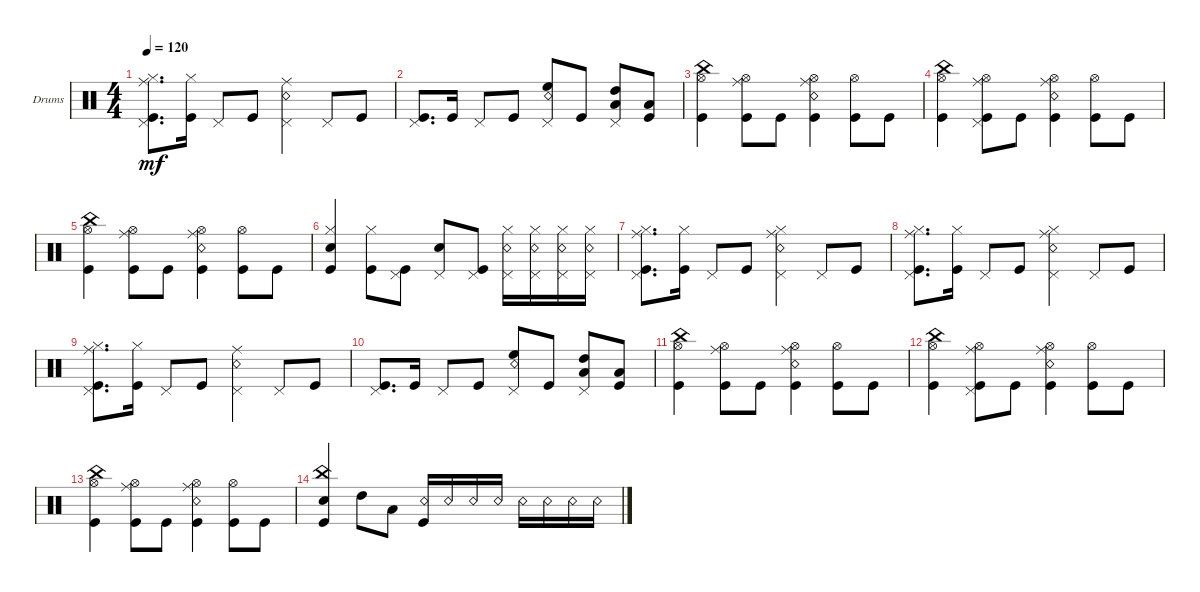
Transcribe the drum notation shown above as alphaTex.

\defaultSystemsLayout 4
\bracketExtendMode groupsimilarinstruments
\firstSystemTrackNameOrientation horizontal
\otherSystemsTrackNameOrientation horizontal
\track ("Drumkit" "Drums") {instrument percussion}
\staff {score}
\articulation defaults
\ts (4 4)
\tempo 120
\clef neutral
\ks c
("Kick (hit)" "Ride (middle)" "Hi-Hat (closed)" "Pedal Hi-Hat (hit)").8{d dy mf} ("Kick (hit)" "Hi-Hat (closed)").16 "Pedal Hi-Hat (hit)".8 "Kick (hit)".8 ("Snare (rim shot)" "Ride (middle)" "Pedal Hi-Hat (hit)").4 "Pedal Hi-Hat (hit)".8 "Kick (hit)".8 |
("Kick (hit)" "Pedal Hi-Hat (hit)").8{d} "Kick (hit)".16 "Pedal Hi-Hat (hit)".8 "Kick (hit)".8 ("Snare (rim shot)" "Pedal Hi-Hat (hit)" "High Floor Tom (hit)").8 "Kick (hit)".8 ("High Tom (hit)" "Pedal Hi-Hat (hit)" "Low Tom (hit)").8 ("Kick (hit)" "Low Tom (hit)").8 |
("Kick (hit)" "Hi-Hat (open)" "China (hit)").4 ("Kick (hit)" "Hi-Hat (open)" "Ride (middle)").8 "Kick (hit)".8 ("Kick (hit)" "Snare (rim shot)" "Hi-Hat (open)" "Ride (middle)").4 ("Kick (hit)" "Hi-Hat (open)").8 "Kick (hit)".8 |
("Kick (hit)" "Hi-Hat (open)" "China (hit)").4 ("Kick (hit)" "Hi-Hat (open)" "Pedal Hi-Hat (hit)" "Ride (middle)").8 "Kick (hit)".8 ("Kick (hit)" "Snare (rim shot)" "Hi-Hat (open)" "Ride (middle)").4 ("Kick (hit)" "Hi-Hat (open)").8 "Kick (hit)".8 |
("Kick (hit)" "Hi-Hat (open)" "China (hit)").4 ("Kick (hit)" "Hi-Hat (open)" "Ride (middle)").8 "Kick (hit)".8 ("Kick (hit)" "Snare (rim shot)" "Hi-Hat (open)" "Ride (middle)").4 ("Kick (hit)" "Hi-Hat (open)").8 "Kick (hit)".8 |
("Kick (hit)" "Snare (hit) 2" "Hi-Hat (closed)").4 ("Kick (hit)" "Hi-Hat (closed)").8 ("Kick (hit)" "Pedal Hi-Hat (hit)").8 ("Snare (hit) 2" "Pedal Hi-Hat (hit)").8 ("Kick (hit)" "Pedal Hi-Hat (hit)").8 ("Snare (rim shot)" "Pedal Hi-Hat (hit)" "Hi-Hat (closed)").16 ("Snare (rim shot)" "Pedal Hi-Hat (hit)" "Hi-Hat (closed)").16 ("Snare (rim shot)" "Pedal Hi-Hat (hit)" "Hi-Hat (closed)").16 ("Snare (rim shot)" "Pedal Hi-Hat (hit)" "Hi-Hat (closed)").16 |
("Kick (hit)" "Ride (middle)" "Hi-Hat (closed)" "Pedal Hi-Hat (hit)").8{d} ("Kick (hit)" "Hi-Hat (closed)").16 "Pedal Hi-Hat (hit)".8 "Kick (hit)".8 ("Snare (rim shot)" "Ride (middle)" "Hi-Hat (closed)" "Pedal Hi-Hat (hit)").4 "Pedal Hi-Hat (hit)".8 "Kick (hit)".8 |
("Kick (hit)" "Ride (middle)" "Hi-Hat (closed)" "Pedal Hi-Hat (hit)").8{d} ("Kick (hit)" "Hi-Hat (closed)").16 "Pedal Hi-Hat (hit)".8 "Kick (hit)".8 ("Snare (rim shot)" "Ride (middle)" "Hi-Hat (closed)" "Pedal Hi-Hat (hit)").4 "Pedal Hi-Hat (hit)".8 "Kick (hit)".8 |
("Kick (hit)" "Ride (middle)" "Hi-Hat (closed)" "Pedal Hi-Hat (hit)").8{d} ("Kick (hit)" "Hi-Hat (closed)").16 "Pedal Hi-Hat (hit)".8 "Kick (hit)".8 ("Snare (rim shot)" "Ride (middle)" "Pedal Hi-Hat (hit)").4 "Pedal Hi-Hat (hit)".8 "Kick (hit)".8 |
("Kick (hit)" "Pedal Hi-Hat (hit)").8{d} "Kick (hit)".16 "Pedal Hi-Hat (hit)".8 "Kick (hit)".8 ("Snare (rim shot)" "Pedal Hi-Hat (hit)" "High Floor Tom (hit)").8 "Kick (hit)".8 ("High Tom (hit)" "Pedal Hi-Hat (hit)" "Low Tom (hit)").8 ("Kick (hit)" "Low Tom (hit)").8 |
("Kick (hit)" "Hi-Hat (open)" "China (hit)").4 ("Kick (hit)" "Hi-Hat (open)" "Ride (middle)").8 "Kick (hit)".8 ("Kick (hit)" "Snare (rim shot)" "Hi-Hat (open)" "Ride (middle)").4 ("Kick (hit)" "Hi-Hat (open)").8 "Kick (hit)".8 |
("Kick (hit)" "Hi-Hat (open)" "China (hit)").4 ("Kick (hit)" "Hi-Hat (open)" "Pedal Hi-Hat (hit)" "Ride (middle)").8 "Kick (hit)".8 ("Kick (hit)" "Snare (rim shot)" "Hi-Hat (open)" "Ride (middle)").4 ("Kick (hit)" "Hi-Hat (open)").8 "Kick (hit)".8 |
("Kick (hit)" "Hi-Hat (open)" "China (hit)").4 ("Kick (hit)" "Hi-Hat (open)" "Ride (middle)").8 "Kick (hit)".8 ("Kick (hit)" "Snare (rim shot)" "Hi-Hat (open)" "Ride (middle)").4 ("Kick (hit)" "Hi-Hat (open)").8 "Kick (hit)".8 |
("Kick (hit)" "Snare (hit) 2" "China (hit)").4 "High Tom (hit)".8 "Low Tom (hit)".8 ("Snare (rim shot)" "Kick (hit)").16 "Snare (rim shot)".16 "Snare (rim shot)".16 "Snare (rim shot)".16 "Snare (rim shot)".16 "Snare (rim shot)".16 "Snare (rim shot)".16 "Snare (rim shot)".16
